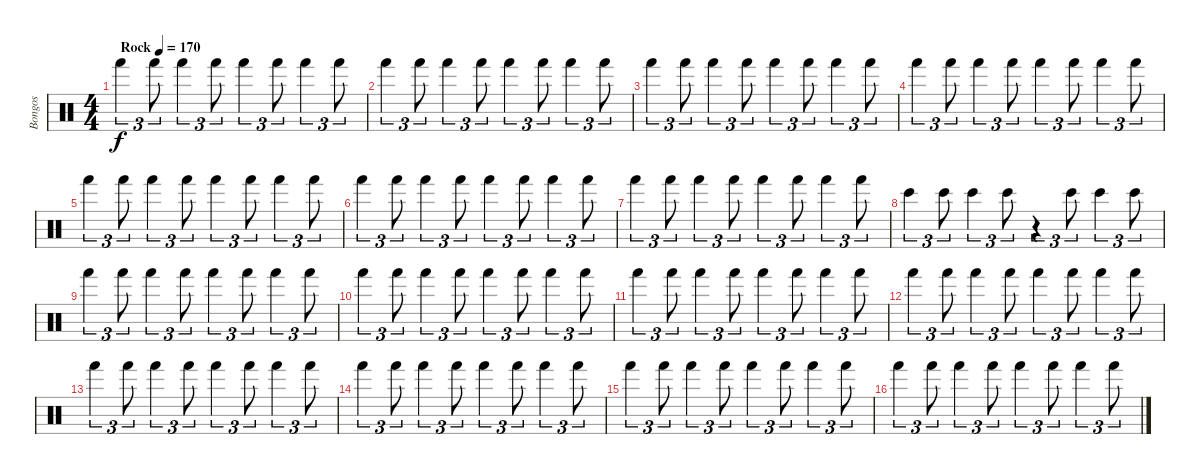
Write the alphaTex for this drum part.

\track ("Bongos" "Bongos") {instrument percussion}
\staff {score}
\articulation defaults
\ts (4 4)
\tempo (170 "Rock")
\clef neutral
\ks c "Hand (hit)".4{tu (3 2) dy f} "Hand (hit)".8{tu (3 2)} "Hand (hit)".4{tu (3 2)} "Hand (hit)".8{tu (3 2)} "Hand (hit)".4{tu (3 2)} "Hand (hit)".8{tu (3 2)} "Hand (hit)".4{tu (3 2)} "Hand (hit)".8{tu (3 2)}
|
"Hand (hit)".4{tu (3 2)} "Hand (hit)".8{tu (3 2)} "Hand (hit)".4{tu (3 2)} "Hand (hit)".8{tu (3 2)} "Hand (hit)".4{tu (3 2)} "Hand (hit)".8{tu (3 2)} "Hand (hit)".4{tu (3 2)} "Hand (hit)".8{tu (3 2)} |
"Hand (hit)".4{tu (3 2)} "Hand (hit)".8{tu (3 2)} "Hand (hit)".4{tu (3 2)} "Hand (hit)".8{tu (3 2)} "Hand (hit)".4{tu (3 2)} "Hand (hit)".8{tu (3 2)} "Hand (hit)".4{tu (3 2)} "Hand (hit)".8{tu (3 2)} |
"Hand (hit)".4{tu (3 2)} "Hand (hit)".8{tu (3 2)} "Hand (hit)".4{tu (3 2)} "Hand (hit)".8{tu (3 2)} "Hand (hit)".4{tu (3 2)} "Hand (hit)".8{tu (3 2)} "Hand (hit)".4{tu (3 2)} "Hand (hit)".8{tu (3 2)} |
"Hand (hit)".4{tu (3 2)} "Hand (hit)".8{tu (3 2)} "Hand (hit)".4{tu (3 2)} "Hand (hit)".8{tu (3 2)} "Hand (hit)".4{tu (3 2)} "Hand (hit)".8{tu (3 2)} "Hand (hit)".4{tu (3 2)} "Hand (hit)".8{tu (3 2)} |
"Hand (hit)".4{tu (3 2)} "Hand (hit)".8{tu (3 2)} "Hand (hit)".4{tu (3 2)} "Hand (hit)".8{tu (3 2)} "Hand (hit)".4{tu (3 2)} "Hand (hit)".8{tu (3 2)} "Hand (hit)".4{tu (3 2)} "Hand (hit)".8{tu (3 2)} |
"Hand (hit)".4{tu (3 2)} "Hand (hit)".8{tu (3 2)} "Hand (hit)".4{tu (3 2)} "Hand (hit)".8{tu (3 2)} "Hand (hit)".4{tu (3 2)} "Hand (hit)".8{tu (3 2)} "Hand (hit)".4{tu (3 2)} "Hand (hit)".8{tu (3 2)} |
"Bongo High (hit)".4{tu (3 2)} "Bongo High (hit)".8{tu (3 2)} "Bongo High (hit)".4{tu (3 2)} "Bongo High (hit)".8{tu (3 2)} r.4{tu (3 2)} "Bongo High (hit)".8{tu (3 2)} "Bongo High (hit)".4{tu (3 2)} "Bongo High (hit)".8{tu (3 2)} |
"Hand (hit)".4{tu (3 2)} "Hand (hit)".8{tu (3 2)} "Hand (hit)".4{tu (3 2)} "Hand (hit)".8{tu (3 2)} "Hand (hit)".4{tu (3 2)} "Hand (hit)".8{tu (3 2)} "Hand (hit)".4{tu (3 2)} "Hand (hit)".8{tu (3 2)} |
"Hand (hit)".4{tu (3 2)} "Hand (hit)".8{tu (3 2)} "Hand (hit)".4{tu (3 2)} "Hand (hit)".8{tu (3 2)} "Hand (hit)".4{tu (3 2)} "Hand (hit)".8{tu (3 2)} "Hand (hit)".4{tu (3 2)} "Hand (hit)".8{tu (3 2)} |
"Hand (hit)".4{tu (3 2)} "Hand (hit)".8{tu (3 2)} "Hand (hit)".4{tu (3 2)} "Hand (hit)".8{tu (3 2)} "Hand (hit)".4{tu (3 2)} "Hand (hit)".8{tu (3 2)} "Hand (hit)".4{tu (3 2)} "Hand (hit)".8{tu (3 2)} |
"Hand (hit)".4{tu (3 2)} "Hand (hit)".8{tu (3 2)} "Hand (hit)".4{tu (3 2)} "Hand (hit)".8{tu (3 2)} "Hand (hit)".4{tu (3 2)} "Hand (hit)".8{tu (3 2)} "Hand (hit)".4{tu (3 2)} "Hand (hit)".8{tu (3 2)} |
"Hand (hit)".4{tu (3 2)} "Hand (hit)".8{tu (3 2)} "Hand (hit)".4{tu (3 2)} "Hand (hit)".8{tu (3 2)} "Hand (hit)".4{tu (3 2)} "Hand (hit)".8{tu (3 2)} "Hand (hit)".4{tu (3 2)} "Hand (hit)".8{tu (3 2)} |
"Hand (hit)".4{tu (3 2)} "Hand (hit)".8{tu (3 2)} "Hand (hit)".4{tu (3 2)} "Hand (hit)".8{tu (3 2)} "Hand (hit)".4{tu (3 2)} "Hand (hit)".8{tu (3 2)} "Hand (hit)".4{tu (3 2)} "Hand (hit)".8{tu (3 2)} |
"Hand (hit)".4{tu (3 2)} "Hand (hit)".8{tu (3 2)} "Hand (hit)".4{tu (3 2)} "Hand (hit)".8{tu (3 2)} "Hand (hit)".4{tu (3 2)} "Hand (hit)".8{tu (3 2)} "Hand (hit)".4{tu (3 2)} "Hand (hit)".8{tu (3 2)} |
"Hand (hit)".4{tu (3 2)} "Hand (hit)".8{tu (3 2)} "Hand (hit)".4{tu (3 2)} "Hand (hit)".8{tu (3 2)} "Hand (hit)".4{tu (3 2)} "Hand (hit)".8{tu (3 2)} "Hand (hit)".4{tu (3 2)} "Hand (hit)".8{tu (3 2)}
